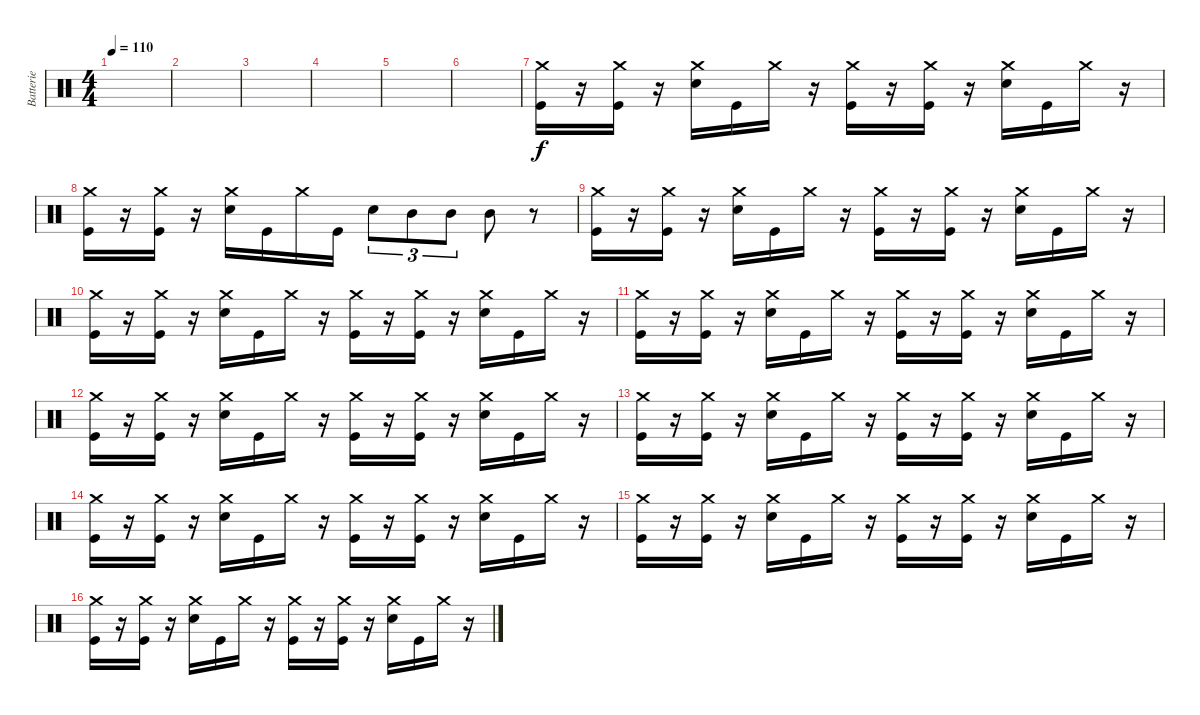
\track ("Batterie" "Batterie") {instrument percussion}
\staff {score}
\articulation defaults
\ts (4 4)
\tempo 110
\clef neutral
\ks c
|
|
|
|
|
|
("Crash medium (hit)" "Kick (hit)").16 r.16 ("Crash medium (hit)" "Kick (hit)").16 r.16 ("Crash medium (hit)" "Electric Snare (hit)").16 "Kick (hit)".16 "Crash medium (hit)".16 r.16 ("Crash medium (hit)" "Kick (hit)").16 r.16 ("Crash medium (hit)" "Kick (hit)").16 r.16 ("Crash medium (hit)" "Electric Snare (hit)").16 "Kick (hit)".16 "Crash medium (hit)".16 r.16 |
("Crash medium (hit)" "Kick (hit)").16 r.16 ("Crash medium (hit)" "Kick (hit)").16 r.16 ("Crash medium (hit)" "Electric Snare (hit)").16 "Kick (hit)".16 "Crash medium (hit)".16 "Kick (hit)".16 "Electric Snare (hit)".8{tu (3 2)} "Mid Tom (hit)".8{tu (3 2)} "Mid Tom (hit)".8{tu (3 2)} "Mid Tom (hit)".8 r.8 |
("Crash medium (hit)" "Kick (hit)").16 r.16 ("Crash medium (hit)" "Kick (hit)").16 r.16 ("Crash medium (hit)" "Electric Snare (hit)").16 "Kick (hit)".16 "Crash medium (hit)".16 r.16 ("Crash medium (hit)" "Kick (hit)").16 r.16 ("Crash medium (hit)" "Kick (hit)").16 r.16 ("Crash medium (hit)" "Electric Snare (hit)").16 "Kick (hit)".16 "Crash medium (hit)".16 r.16 |
("Crash medium (hit)" "Kick (hit)").16 r.16 ("Crash medium (hit)" "Kick (hit)").16 r.16 ("Crash medium (hit)" "Electric Snare (hit)").16 "Kick (hit)".16 "Crash medium (hit)".16 r.16 ("Crash medium (hit)" "Kick (hit)").16 r.16 ("Crash medium (hit)" "Kick (hit)").16 r.16 ("Crash medium (hit)" "Electric Snare (hit)").16 "Kick (hit)".16 "Crash medium (hit)".16 r.16 |
("Crash medium (hit)" "Kick (hit)").16 r.16 ("Crash medium (hit)" "Kick (hit)").16 r.16 ("Crash medium (hit)" "Electric Snare (hit)").16 "Kick (hit)".16 "Crash medium (hit)".16 r.16 ("Crash medium (hit)" "Kick (hit)").16 r.16 ("Crash medium (hit)" "Kick (hit)").16 r.16 ("Crash medium (hit)" "Electric Snare (hit)").16 "Kick (hit)".16 "Crash medium (hit)".16 r.16 |
("Crash medium (hit)" "Kick (hit)").16 r.16 ("Crash medium (hit)" "Kick (hit)").16 r.16 ("Crash medium (hit)" "Electric Snare (hit)").16 "Kick (hit)".16 "Crash medium (hit)".16 r.16 ("Crash medium (hit)" "Kick (hit)").16 r.16 ("Crash medium (hit)" "Kick (hit)").16 r.16 ("Crash medium (hit)" "Electric Snare (hit)").16 "Kick (hit)".16 "Crash medium (hit)".16 r.16 |
("Crash medium (hit)" "Kick (hit)").16 r.16 ("Crash medium (hit)" "Kick (hit)").16 r.16 ("Crash medium (hit)" "Electric Snare (hit)").16 "Kick (hit)".16 "Crash medium (hit)".16 r.16 ("Crash medium (hit)" "Kick (hit)").16 r.16 ("Crash medium (hit)" "Kick (hit)").16 r.16 ("Crash medium (hit)" "Electric Snare (hit)").16 "Kick (hit)".16 "Crash medium (hit)".16 r.16 |
("Crash medium (hit)" "Kick (hit)").16 r.16 ("Crash medium (hit)" "Kick (hit)").16 r.16 ("Crash medium (hit)" "Electric Snare (hit)").16 "Kick (hit)".16 "Crash medium (hit)".16 r.16 ("Crash medium (hit)" "Kick (hit)").16 r.16 ("Crash medium (hit)" "Kick (hit)").16 r.16 ("Crash medium (hit)" "Electric Snare (hit)").16 "Kick (hit)".16 "Crash medium (hit)".16 r.16 |
("Crash medium (hit)" "Kick (hit)").16 r.16 ("Crash medium (hit)" "Kick (hit)").16 r.16 ("Crash medium (hit)" "Electric Snare (hit)").16 "Kick (hit)".16 "Crash medium (hit)".16 r.16 ("Crash medium (hit)" "Kick (hit)").16 r.16 ("Crash medium (hit)" "Kick (hit)").16 r.16 ("Crash medium (hit)" "Electric Snare (hit)").16 "Kick (hit)".16 "Crash medium (hit)".16 r.16 |
("Crash medium (hit)" "Kick (hit)").16 r.16 ("Crash medium (hit)" "Kick (hit)").16 r.16 ("Crash medium (hit)" "Electric Snare (hit)").16 "Kick (hit)".16 "Crash medium (hit)".16 r.16 ("Crash medium (hit)" "Kick (hit)").16 r.16 ("Crash medium (hit)" "Kick (hit)").16 r.16 ("Crash medium (hit)" "Electric Snare (hit)").16 "Kick (hit)".16 "Crash medium (hit)".16 r.16
